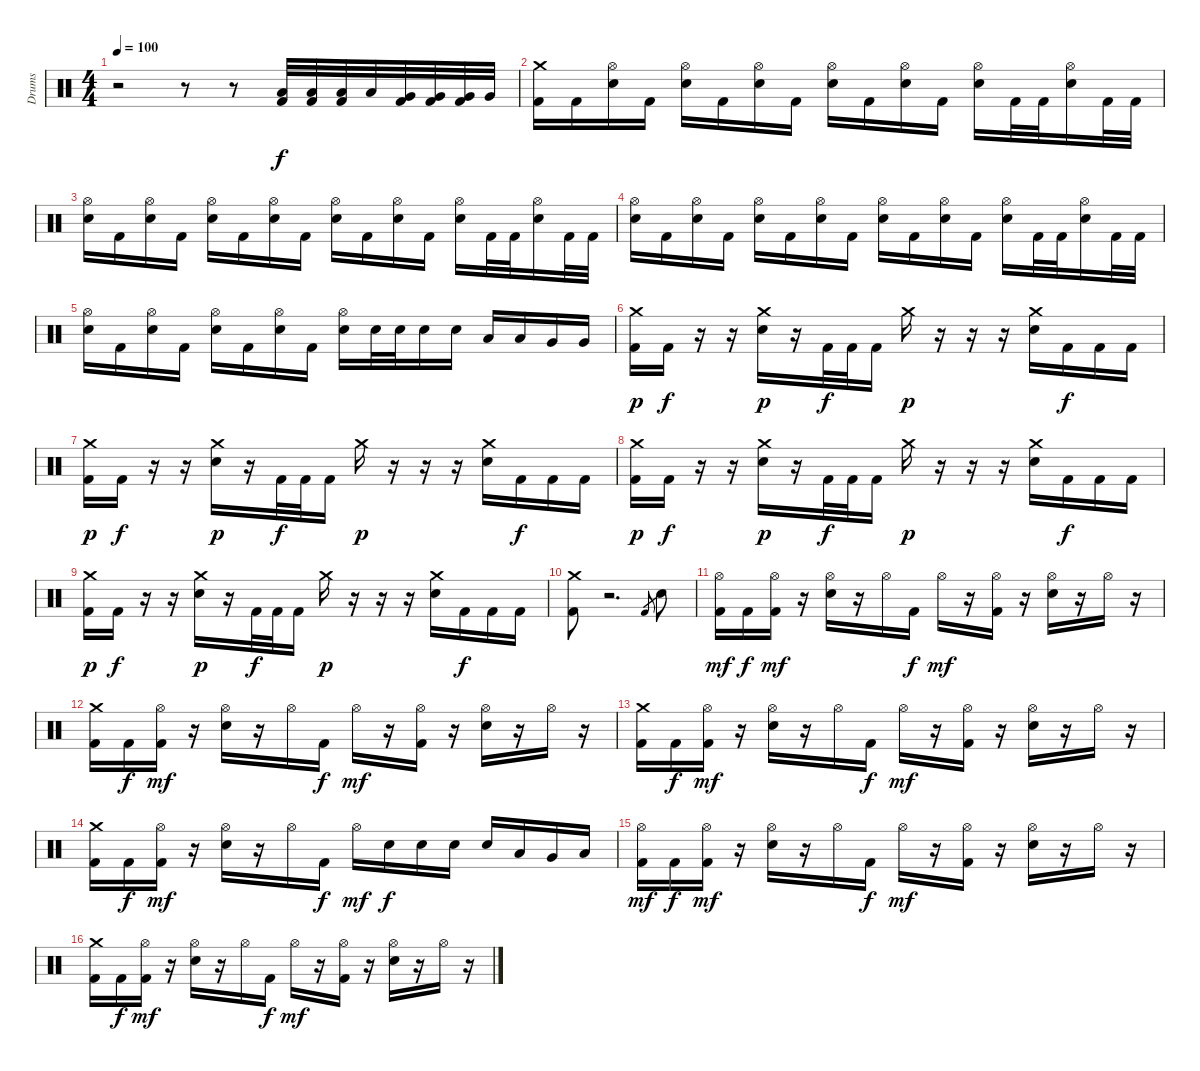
\track ("Drums" "Drums") {instrument percussion}
\staff {score}
\articulation defaults
\ts (4 4)
\tempo 100
\clef neutral
\ks c
r.2{dy p} r.8 r.8 ("Low Tom (hit)" "Kick (hit) 2").32{dy f} ("Low Tom (hit)" "Kick (hit) 2").32 ("Low Tom (hit)" "Kick (hit) 2").32 "Low Tom (hit)".32 ("Very Low Tom (hit)" "Kick (hit) 2").32 ("Very Low Tom (hit)" "Kick (hit) 2").32 ("Very Low Tom (hit)" "Kick (hit) 2").32 "Very Low Tom (hit)".32 |
("Crash medium (hit)" "Kick (hit) 2").16 "Kick (hit) 2".16 ("Hi-Hat (open)" "Snare (hit) 2").16 "Kick (hit) 2".16 ("Hi-Hat (open)" "Snare (hit) 2").16 "Kick (hit) 2".16 ("Hi-Hat (open)" "Snare (hit) 2").16 "Kick (hit) 2".16 ("Hi-Hat (open)" "Snare (hit) 2").16 "Kick (hit) 2".16 ("Hi-Hat (open)" "Snare (hit) 2").16 "Kick (hit) 2".16 ("Hi-Hat (open)" "Snare (hit) 2").16 "Kick (hit) 2".32 "Kick (hit) 2".32 ("Hi-Hat (open)" "Snare (hit) 2").16 "Kick (hit) 2".32 "Kick (hit) 2".32 |
("Hi-Hat (open)" "Snare (hit) 2").16 "Kick (hit) 2".16 ("Hi-Hat (open)" "Snare (hit) 2").16 "Kick (hit) 2".16 ("Hi-Hat (open)" "Snare (hit) 2").16 "Kick (hit) 2".16 ("Hi-Hat (open)" "Snare (hit) 2").16 "Kick (hit) 2".16 ("Hi-Hat (open)" "Snare (hit) 2").16 "Kick (hit) 2".16 ("Hi-Hat (open)" "Snare (hit) 2").16 "Kick (hit) 2".16 ("Hi-Hat (open)" "Snare (hit) 2").16 "Kick (hit) 2".32 "Kick (hit) 2".32 ("Hi-Hat (open)" "Snare (hit) 2").16 "Kick (hit) 2".32 "Kick (hit) 2".32 |
("Hi-Hat (open)" "Snare (hit) 2").16 "Kick (hit) 2".16 ("Hi-Hat (open)" "Snare (hit) 2").16 "Kick (hit) 2".16 ("Hi-Hat (open)" "Snare (hit) 2").16 "Kick (hit) 2".16 ("Hi-Hat (open)" "Snare (hit) 2").16 "Kick (hit) 2".16 ("Hi-Hat (open)" "Snare (hit) 2").16 "Kick (hit) 2".16 ("Hi-Hat (open)" "Snare (hit) 2").16 "Kick (hit) 2".16 ("Hi-Hat (open)" "Snare (hit) 2").16 "Kick (hit) 2".32 "Kick (hit) 2".32 ("Hi-Hat (open)" "Snare (hit) 2").16 "Kick (hit) 2".32 "Kick (hit) 2".32 |
("Hi-Hat (open)" "Snare (hit) 2").16 "Kick (hit) 2".16 ("Hi-Hat (open)" "Snare (hit) 2").16 "Kick (hit) 2".16 ("Hi-Hat (open)" "Snare (hit) 2").16 "Kick (hit) 2".16 ("Hi-Hat (open)" "Snare (hit) 2").16 "Kick (hit) 2".16 ("Hi-Hat (open)" "Snare (hit) 2").16 "Snare (hit) 2".32 "Snare (hit) 2".32 "Snare (hit) 2".16 "Snare (hit) 2".16 "Low Tom (hit)".16 "Low Tom (hit)".16 "Very Low Tom (hit)".16 "Very Low Tom (hit)".16 |
("Crash medium (hit)" "Kick (hit) 2").16{dy p} "Kick (hit) 2".16{dy f} r.16 r.16 ("Crash medium (hit)" "Snare (hit) 2").16{dy p} r.16 "Kick (hit) 2".32{dy f} "Kick (hit) 2".32 "Kick (hit) 2".16 "Crash medium (hit)".16{dy p} r.16 r.16 r.16 ("Crash medium (hit)" "Snare (hit) 2").16 "Kick (hit) 2".16{dy f} "Kick (hit) 2".16 "Kick (hit) 2".16 |
("Crash medium (hit)" "Kick (hit) 2").16{dy p} "Kick (hit) 2".16{dy f} r.16 r.16 ("Crash medium (hit)" "Snare (hit) 2").16{dy p} r.16 "Kick (hit) 2".32{dy f} "Kick (hit) 2".32 "Kick (hit) 2".16 "Crash medium (hit)".16{dy p} r.16 r.16 r.16 ("Crash medium (hit)" "Snare (hit) 2").16 "Kick (hit) 2".16{dy f} "Kick (hit) 2".16 "Kick (hit) 2".16 |
("Crash medium (hit)" "Kick (hit) 2").16{dy p} "Kick (hit) 2".16{dy f} r.16 r.16 ("Crash medium (hit)" "Snare (hit) 2").16{dy p} r.16 "Kick (hit) 2".32{dy f} "Kick (hit) 2".32 "Kick (hit) 2".16 "Crash medium (hit)".16{dy p} r.16 r.16 r.16 ("Crash medium (hit)" "Snare (hit) 2").16 "Kick (hit) 2".16{dy f} "Kick (hit) 2".16 "Kick (hit) 2".16 |
("Crash medium (hit)" "Kick (hit) 2").16{dy p} "Kick (hit) 2".16{dy f} r.16 r.16 ("Crash medium (hit)" "Snare (hit) 2").16{dy p} r.16 "Kick (hit) 2".32{dy f} "Kick (hit) 2".32 "Kick (hit) 2".16 "Crash medium (hit)".16{dy p} r.16 r.16 r.16 ("Crash medium (hit)" "Snare (hit) 2").16 "Kick (hit) 2".16{dy f} "Kick (hit) 2".16 "Kick (hit) 2".16 |
("Crash medium (hit)" "Kick (hit) 2").8 r.2{d} "Kick (hit) 2".8{gr} "Snare (hit) 2".8 |
("Hi-Hat (open)" "Kick (hit) 2").16{dy mf} "Kick (hit) 2".16{dy f} ("Hi-Hat (open)" "Kick (hit) 2").16{dy mf} r.16 ("Hi-Hat (open)" "Snare (hit) 2").16 r.16 "Hi-Hat (open)".16 "Kick (hit) 2".16{dy f} "Hi-Hat (open)".16{dy mf} r.16 ("Hi-Hat (open)" "Kick (hit) 2").16 r.16 ("Hi-Hat (open)" "Snare (hit) 2").16 r.16 "Hi-Hat (open)".16 r.16 |
("Crash medium (hit)" "Kick (hit) 2").16 "Kick (hit) 2".16{dy f} ("Hi-Hat (open)" "Kick (hit) 2").16{dy mf} r.16 ("Hi-Hat (open)" "Snare (hit) 2").16 r.16 "Hi-Hat (open)".16 "Kick (hit) 2".16{dy f} "Hi-Hat (open)".16{dy mf} r.16 ("Hi-Hat (open)" "Kick (hit) 2").16 r.16 ("Hi-Hat (open)" "Snare (hit) 2").16 r.16 "Hi-Hat (open)".16 r.16 |
("Crash medium (hit)" "Kick (hit) 2").16 "Kick (hit) 2".16{dy f} ("Hi-Hat (open)" "Kick (hit) 2").16{dy mf} r.16 ("Hi-Hat (open)" "Snare (hit) 2").16 r.16 "Hi-Hat (open)".16 "Kick (hit) 2".16{dy f} "Hi-Hat (open)".16{dy mf} r.16 ("Hi-Hat (open)" "Kick (hit) 2").16 r.16 ("Hi-Hat (open)" "Snare (hit) 2").16 r.16 "Hi-Hat (open)".16 r.16 |
("Crash medium (hit)" "Kick (hit) 2").16 "Kick (hit) 2".16{dy f} ("Hi-Hat (open)" "Kick (hit) 2").16{dy mf} r.16 ("Hi-Hat (open)" "Snare (hit) 2").16 r.16 "Hi-Hat (open)".16 "Kick (hit) 2".16{dy f} "Hi-Hat (open)".16{dy mf} "Snare (hit) 2".16{dy f} "Snare (hit) 2".16 "Snare (hit) 2".16 "Snare (hit) 2".16 "Low Tom (hit)".16 "Very Low Tom (hit)".16 "Low Floor Tom (hit)".16 |
("Hi-Hat (open)" "Kick (hit) 2").16{dy mf} "Kick (hit) 2".16{dy f} ("Hi-Hat (open)" "Kick (hit) 2").16{dy mf} r.16 ("Hi-Hat (open)" "Snare (hit) 2").16 r.16 "Hi-Hat (open)".16 "Kick (hit) 2".16{dy f} "Hi-Hat (open)".16{dy mf} r.16 ("Hi-Hat (open)" "Kick (hit) 2").16 r.16 ("Hi-Hat (open)" "Snare (hit) 2").16 r.16 "Hi-Hat (open)".16 r.16 |
("Crash medium (hit)" "Kick (hit) 2").16 "Kick (hit) 2".16{dy f} ("Hi-Hat (open)" "Kick (hit) 2").16{dy mf} r.16 ("Hi-Hat (open)" "Snare (hit) 2").16 r.16 "Hi-Hat (open)".16 "Kick (hit) 2".16{dy f} "Hi-Hat (open)".16{dy mf} r.16 ("Hi-Hat (open)" "Kick (hit) 2").16 r.16 ("Hi-Hat (open)" "Snare (hit) 2").16 r.16 "Hi-Hat (open)".16 r.16
